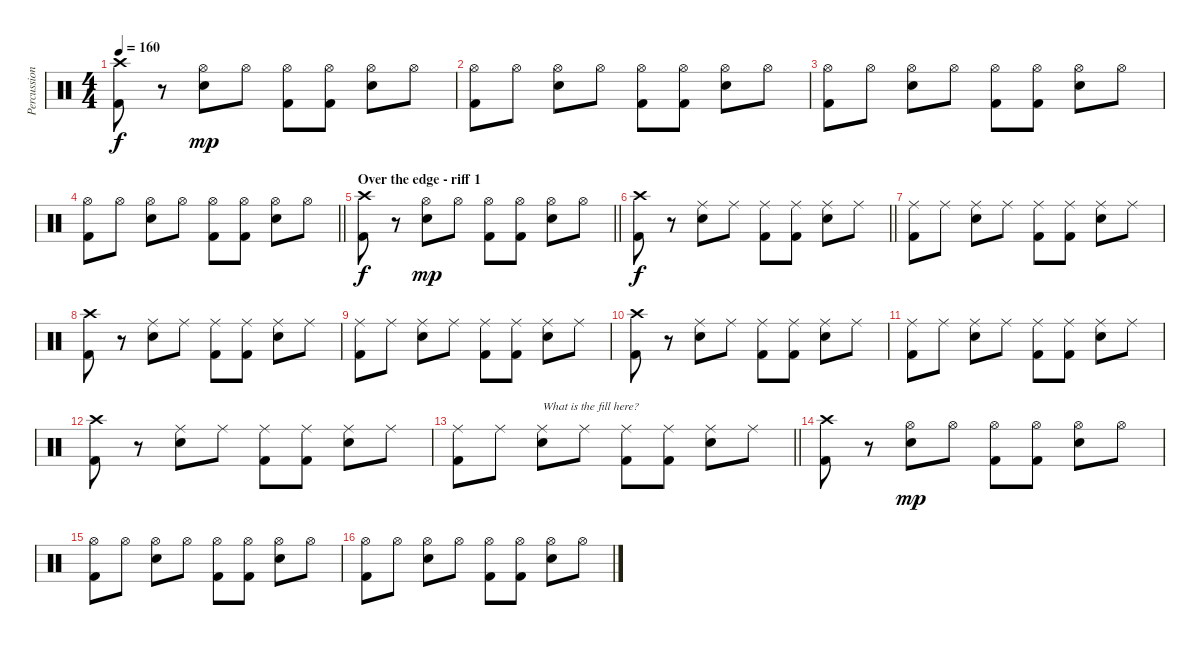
\track ("Percussion - album" "Percussion") {mute instrument percussion}
\staff {score}
\articulation defaults
\ts (4 4)
\tempo 160
\clef neutral
\ks c
("Crash high (hit)" "Kick (hit) 2").8{dy f} r.8 ("Hi-Hat (open)" "Snare (hit) 2").8{dy mp} "Hi-Hat (open)".8 ("Hi-Hat (open)" "Kick (hit) 2").8 ("Hi-Hat (open)" "Kick (hit) 2").8 ("Hi-Hat (open)" "Snare (hit) 2").8 "Hi-Hat (open)".8 |
("Hi-Hat (open)" "Kick (hit) 2").8 "Hi-Hat (open)".8 ("Hi-Hat (open)" "Snare (hit) 2").8 "Hi-Hat (open)".8 ("Hi-Hat (open)" "Kick (hit) 2").8 ("Hi-Hat (open)" "Kick (hit) 2").8 ("Hi-Hat (open)" "Snare (hit) 2").8 "Hi-Hat (open)".8 |
("Hi-Hat (open)" "Kick (hit) 2").8 "Hi-Hat (open)".8 ("Hi-Hat (open)" "Snare (hit) 2").8 "Hi-Hat (open)".8 ("Hi-Hat (open)" "Kick (hit) 2").8 ("Hi-Hat (open)" "Kick (hit) 2").8 ("Hi-Hat (open)" "Snare (hit) 2").8 "Hi-Hat (open)".8 |
\barLineRight lightlight
("Hi-Hat (open)" "Kick (hit) 2").8 "Hi-Hat (open)".8 ("Hi-Hat (open)" "Snare (hit) 2").8 "Hi-Hat (open)".8 ("Hi-Hat (open)" "Kick (hit) 2").8 ("Hi-Hat (open)" "Kick (hit) 2").8 ("Hi-Hat (open)" "Snare (hit) 2").8 "Hi-Hat (open)".8 |
\section ("" "Over the edge - riff 1")
\barLineRight lightlight
("Crash high (hit)" "Kick (hit) 2").8{dy f} r.8 ("Hi-Hat (open)" "Snare (hit) 2").8{dy mp} "Hi-Hat (open)".8 ("Hi-Hat (open)" "Kick (hit) 2").8 ("Hi-Hat (open)" "Kick (hit) 2").8 ("Hi-Hat (open)" "Snare (hit) 2").8 "Hi-Hat (open)".8 |
\barLineRight lightlight
("Crash high (hit)" "Kick (hit) 2").8{dy f} r.8 ("Ride (middle)" "Snare (hit) 2").8 "Ride (middle)".8 ("Ride (middle)" "Kick (hit) 2").8 ("Ride (middle)" "Kick (hit) 2").8 ("Ride (middle)" "Snare (hit) 2").8 "Ride (middle)".8 |
("Ride (middle)" "Kick (hit) 2").8 "Ride (middle)".8 ("Ride (middle)" "Snare (hit) 2").8 "Ride (middle)".8 ("Ride (middle)" "Kick (hit) 2").8 ("Ride (middle)" "Kick (hit) 2").8 ("Ride (middle)" "Snare (hit) 2").8 "Ride (middle)".8 |
("Crash high (hit)" "Kick (hit) 2").8 r.8 ("Ride (middle)" "Snare (hit) 2").8 "Ride (middle)".8 ("Ride (middle)" "Kick (hit) 2").8 ("Ride (middle)" "Kick (hit) 2").8 ("Ride (middle)" "Snare (hit) 2").8 "Ride (middle)".8 |
("Ride (middle)" "Kick (hit) 2").8 "Ride (middle)".8 ("Ride (middle)" "Snare (hit) 2").8 "Ride (middle)".8 ("Ride (middle)" "Kick (hit) 2").8 ("Ride (middle)" "Kick (hit) 2").8 ("Ride (middle)" "Snare (hit) 2").8 "Ride (middle)".8 |
("Crash high (hit)" "Kick (hit) 2").8 r.8 ("Ride (middle)" "Snare (hit) 2").8 "Ride (middle)".8 ("Ride (middle)" "Kick (hit) 2").8 ("Ride (middle)" "Kick (hit) 2").8 ("Ride (middle)" "Snare (hit) 2").8 "Ride (middle)".8 |
("Ride (middle)" "Kick (hit) 2").8 "Ride (middle)".8 ("Ride (middle)" "Snare (hit) 2").8 "Ride (middle)".8 ("Ride (middle)" "Kick (hit) 2").8 ("Ride (middle)" "Kick (hit) 2").8 ("Ride (middle)" "Snare (hit) 2").8 "Ride (middle)".8 |
("Crash high (hit)" "Kick (hit) 2").8 r.8 ("Ride (middle)" "Snare (hit) 2").8 "Ride (middle)".8 ("Ride (middle)" "Kick (hit) 2").8 ("Ride (middle)" "Kick (hit) 2").8 ("Ride (middle)" "Snare (hit) 2").8 "Ride (middle)".8 |
\barLineRight lightlight
("Ride (middle)" "Kick (hit) 2").8 "Ride (middle)".8 ("Ride (middle)" "Snare (hit) 2").8{txt "What is the fill here?"} "Ride (middle)".8 ("Ride (middle)" "Kick (hit) 2").8 ("Ride (middle)" "Kick (hit) 2").8 ("Ride (middle)" "Snare (hit) 2").8 "Ride (middle)".8 |
("Crash high (hit)" "Kick (hit) 2").8 r.8 ("Hi-Hat (open)" "Snare (hit) 2").8{dy mp} "Hi-Hat (open)".8 ("Hi-Hat (open)" "Kick (hit) 2").8 ("Hi-Hat (open)" "Kick (hit) 2").8 ("Hi-Hat (open)" "Snare (hit) 2").8 "Hi-Hat (open)".8 |
("Hi-Hat (open)" "Kick (hit) 2").8 "Hi-Hat (open)".8 ("Hi-Hat (open)" "Snare (hit) 2").8 "Hi-Hat (open)".8 ("Hi-Hat (open)" "Kick (hit) 2").8 ("Hi-Hat (open)" "Kick (hit) 2").8 ("Hi-Hat (open)" "Snare (hit) 2").8 "Hi-Hat (open)".8 |
("Hi-Hat (open)" "Kick (hit) 2").8 "Hi-Hat (open)".8 ("Hi-Hat (open)" "Snare (hit) 2").8 "Hi-Hat (open)".8 ("Hi-Hat (open)" "Kick (hit) 2").8 ("Hi-Hat (open)" "Kick (hit) 2").8 ("Hi-Hat (open)" "Snare (hit) 2").8 "Hi-Hat (open)".8
